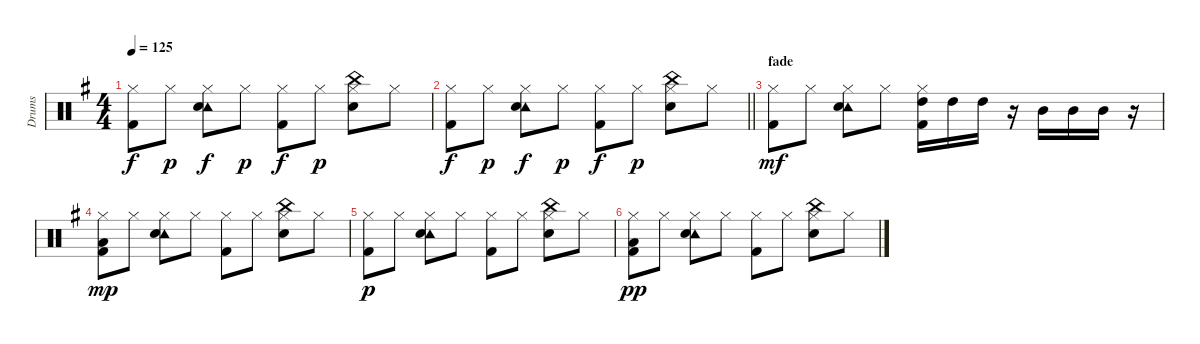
\track ("Drums" "Drums") {instrument percussion}
\staff {score}
\articulation defaults
\ts (4 4)
\tempo 125
\clef neutral
\ks g
("Hi-Hat (closed)" "Kick (hit) 2").8{dy f} "Hi-Hat (closed)".8{dy p} ("Hi-Hat (closed)" "Tambourine (hit)" "Electric Snare (hit)").8{dy f} "Hi-Hat (closed)".8{dy p} ("Hi-Hat (closed)" "Kick (hit) 2").8{dy f} "Hi-Hat (closed)".8{dy p} ("Hi-Hat (closed)" "China (hit)" "Electric Snare (hit)").8 "Hi-Hat (closed)".8 |
\barLineRight lightlight
("Hi-Hat (closed)" "Kick (hit) 2").8{dy f} "Hi-Hat (closed)".8{dy p} ("Hi-Hat (closed)" "Tambourine (hit)" "Electric Snare (hit)").8{dy f} "Hi-Hat (closed)".8{dy p} ("Hi-Hat (closed)" "Kick (hit) 2").8{dy f} "Hi-Hat (closed)".8{dy p} ("Hi-Hat (closed)" "China (hit)" "Electric Snare (hit)").8 "Hi-Hat (closed)".8 |
\section ("" "fade")
("Hi-Hat (closed)" "Kick (hit) 2").8{dy mf} "Hi-Hat (closed)".8 ("Hi-Hat (closed)" "Tambourine (hit)" "Electric Snare (hit)").8 "Hi-Hat (closed)".8 ("Hi-Hat (closed)" "High Tom (hit)" "Kick (hit) 2").16 "High Tom (hit)".16 "High Tom (hit)".16 r.16 "Mid Tom (hit)".16 "Mid Tom (hit)".16 "Mid Tom (hit)".16 r.16 |
("Hi-Hat (closed)" "Low Tom (hit)" "Kick (hit) 2").8{dy mp} "Hi-Hat (closed)".8 ("Hi-Hat (closed)" "Tambourine (hit)" "Electric Snare (hit)").8 "Hi-Hat (closed)".8 ("Hi-Hat (closed)" "Kick (hit) 2").8 "Hi-Hat (closed)".8 ("Hi-Hat (closed)" "China (hit)" "Electric Snare (hit)").8 "Hi-Hat (closed)".8 |
("Hi-Hat (closed)" "Kick (hit) 2").8{dy p} "Hi-Hat (closed)".8 ("Hi-Hat (closed)" "Tambourine (hit)" "Electric Snare (hit)").8 "Hi-Hat (closed)".8 ("Hi-Hat (closed)" "Kick (hit) 2").8 "Hi-Hat (closed)".8 ("Hi-Hat (closed)" "China (hit)" "Electric Snare (hit)").8 "Hi-Hat (closed)".8 |
("Hi-Hat (closed)" "Low Tom (hit)" "Kick (hit) 2").8{dy pp} "Hi-Hat (closed)".8 ("Hi-Hat (closed)" "Tambourine (hit)" "Electric Snare (hit)").8 "Hi-Hat (closed)".8 ("Hi-Hat (closed)" "Kick (hit) 2").8 "Hi-Hat (closed)".8 ("Hi-Hat (closed)" "China (hit)" "Electric Snare (hit)").8 "Hi-Hat (closed)".8
